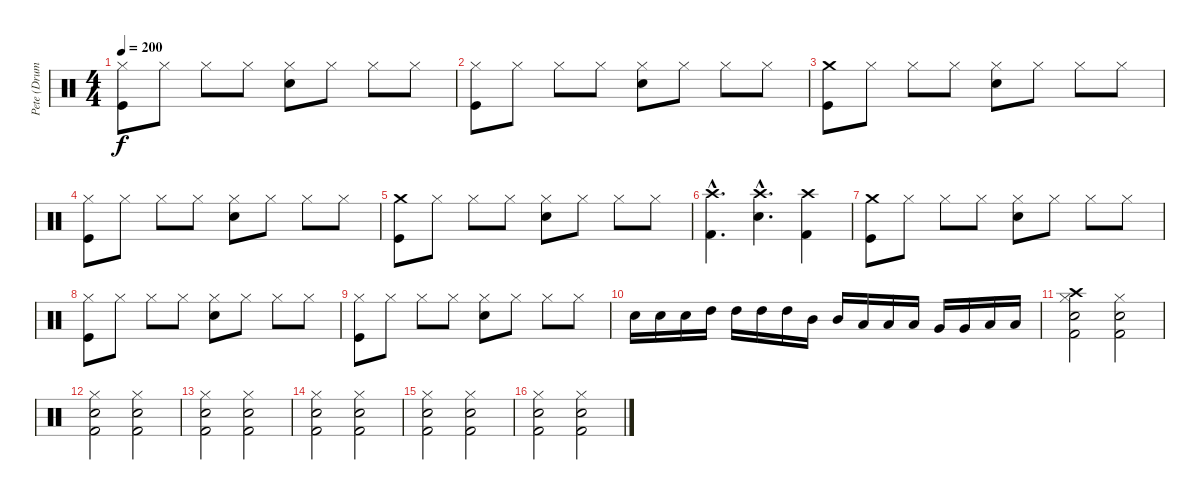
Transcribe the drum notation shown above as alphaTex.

\track ("Pete (Drums)" "Pete (Drum") {instrument percussion}
\staff {score}
\articulation defaults
\ts (4 4)
\tempo 200
\clef neutral
\ks c
("Hi-Hat (closed)" "Kick (hit)").8{dy f} "Hi-Hat (closed)".8 "Hi-Hat (closed)".8 "Hi-Hat (closed)".8 ("Hi-Hat (closed)" "Snare (hit) 2").8 "Hi-Hat (closed)".8 "Hi-Hat (closed)".8 "Hi-Hat (closed)".8 |
("Hi-Hat (closed)" "Kick (hit)").8 "Hi-Hat (closed)".8 "Hi-Hat (closed)".8 "Hi-Hat (closed)".8 ("Hi-Hat (closed)" "Snare (hit) 2").8 "Hi-Hat (closed)".8 "Hi-Hat (closed)".8 "Hi-Hat (closed)".8 |
("Crash medium (hit)" "Kick (hit)").8 "Hi-Hat (closed)".8 "Hi-Hat (closed)".8 "Hi-Hat (closed)".8 ("Hi-Hat (closed)" "Snare (hit) 2").8 "Hi-Hat (closed)".8 "Hi-Hat (closed)".8 "Hi-Hat (closed)".8 |
("Hi-Hat (closed)" "Kick (hit)").8 "Hi-Hat (closed)".8 "Hi-Hat (closed)".8 "Hi-Hat (closed)".8 ("Hi-Hat (closed)" "Snare (hit) 2").8 "Hi-Hat (closed)".8 "Hi-Hat (closed)".8 "Hi-Hat (closed)".8 |
("Crash medium (hit)" "Kick (hit)").8 "Hi-Hat (closed)".8 "Hi-Hat (closed)".8 "Hi-Hat (closed)".8 ("Hi-Hat (closed)" "Snare (hit) 2").8 "Hi-Hat (closed)".8 "Hi-Hat (closed)".8 "Hi-Hat (closed)".8 |
("Crash high (hit)"{hac} "Kick (hit) 2"{hac}).4{d} ("Crash high (hit)"{hac} "Snare (hit) 2"{hac}).4{d} ("Crash high (hit)" "Kick (hit) 2").4 |
("Crash medium (hit)" "Kick (hit)").8 "Hi-Hat (closed)".8 "Hi-Hat (closed)".8 "Hi-Hat (closed)".8 ("Hi-Hat (closed)" "Snare (hit) 2").8 "Hi-Hat (closed)".8 "Hi-Hat (closed)".8 "Hi-Hat (closed)".8 |
("Hi-Hat (closed)" "Kick (hit)").8 "Hi-Hat (closed)".8 "Hi-Hat (closed)".8 "Hi-Hat (closed)".8 ("Hi-Hat (closed)" "Snare (hit) 2").8 "Hi-Hat (closed)".8 "Hi-Hat (closed)".8 "Hi-Hat (closed)".8 |
("Hi-Hat (closed)" "Kick (hit)").8 "Hi-Hat (closed)".8 "Hi-Hat (closed)".8 "Hi-Hat (closed)".8 ("Hi-Hat (closed)" "Snare (hit) 2").8 "Hi-Hat (closed)".8 "Hi-Hat (closed)".8 "Hi-Hat (closed)".8 |
"Snare (hit) 2".16 "Snare (hit) 2".16 "Snare (hit) 2".16 "High Tom (hit)".16 "High Tom (hit)".16 "High Tom (hit)".16 "High Tom (hit)".16 "Mid Tom (hit)".16 "Mid Tom (hit)".16 "Low Tom (hit)".16 "Low Tom (hit)".16 "Low Tom (hit)".16 "Very Low Tom (hit)".16 "Very Low Tom (hit)".16 "Low Floor Tom (hit)".16 "Low Floor Tom (hit)".16 |
("Hi-Hat (closed)" "Snare (hit) 2" "Kick (hit) 2" "Crash high (hit)").2 ("Hi-Hat (closed)" "Snare (hit) 2" "Kick (hit) 2").2 |
("Hi-Hat (closed)" "Snare (hit) 2" "Kick (hit) 2").2 ("Hi-Hat (closed)" "Snare (hit) 2" "Kick (hit) 2").2 |
("Hi-Hat (closed)" "Snare (hit) 2" "Kick (hit) 2").2 ("Hi-Hat (closed)" "Snare (hit) 2" "Kick (hit) 2").2 |
("Hi-Hat (closed)" "Snare (hit) 2" "Kick (hit) 2").2 ("Hi-Hat (closed)" "Snare (hit) 2" "Kick (hit) 2").2 |
("Hi-Hat (closed)" "Snare (hit) 2" "Kick (hit) 2").2 ("Hi-Hat (closed)" "Snare (hit) 2" "Kick (hit) 2").2 |
("Hi-Hat (closed)" "Snare (hit) 2" "Kick (hit) 2").2 ("Hi-Hat (closed)" "Snare (hit) 2" "Kick (hit) 2").2
